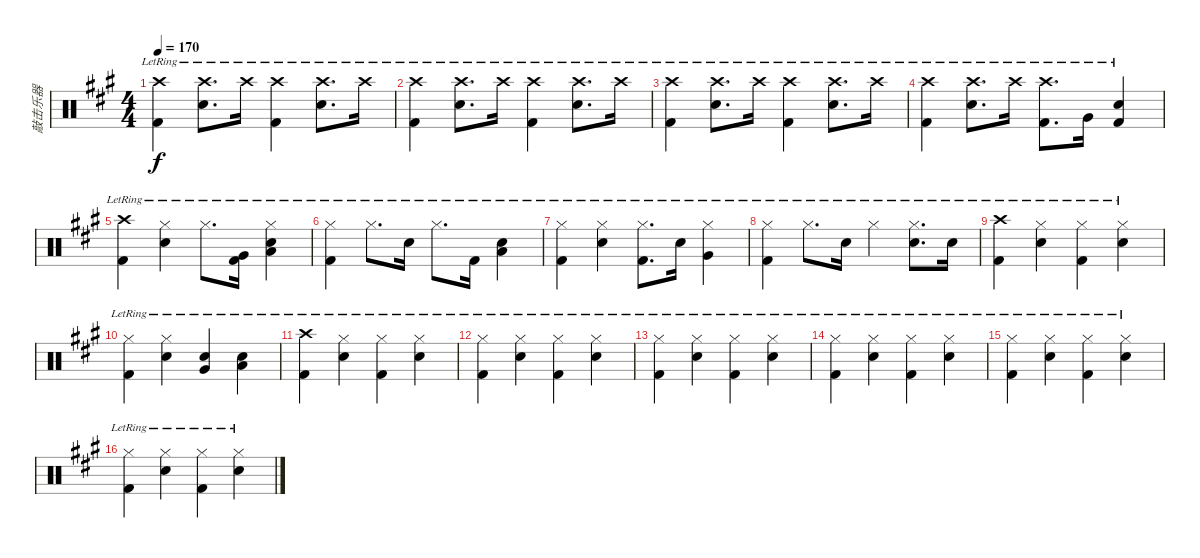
\track ("敲击乐器" "敲击乐器") {instrument percussion}
\staff {score}
\articulation defaults
\ts (4 4)
\tempo 170
\clef neutral
\ks a
("Crash high (hit)"{lr} "Kick (hit) 2"{lr}).4{dy f} ("Crash high (hit)"{lr} "Snare (hit) 2"{lr}).8{d} "Crash high (hit)"{lr}.16 ("Crash high (hit)"{lr} "Kick (hit) 2"{lr}).4 ("Crash high (hit)"{lr} "Snare (hit) 2"{lr}).8{d} "Crash high (hit)"{lr}.16 |
("Crash high (hit)"{lr} "Kick (hit) 2"{lr}).4 ("Crash high (hit)"{lr} "Snare (hit) 2"{lr}).8{d} "Crash high (hit)"{lr}.16 ("Crash high (hit)"{lr} "Kick (hit) 2"{lr}).4 ("Crash high (hit)"{lr} "Snare (hit) 2"{lr}).8{d} "Crash high (hit)"{lr}.16 |
("Crash high (hit)"{lr} "Kick (hit) 2"{lr}).4 ("Crash high (hit)"{lr} "Snare (hit) 2"{lr}).8{d} "Crash high (hit)"{lr}.16 ("Crash high (hit)"{lr} "Kick (hit) 2"{lr}).4 ("Crash high (hit)"{lr} "Snare (hit) 2"{lr}).8{d} "Crash high (hit)"{lr}.16 |
("Crash high (hit)"{lr} "Kick (hit) 2"{lr}).4 ("Crash high (hit)"{lr} "Snare (hit) 2"{lr}).8{d} "Crash high (hit)"{lr}.16 ("Crash high (hit)"{lr} "Kick (hit) 2"{lr}).8{d} "Very Low Tom (hit)"{lr}.16 ("Snare (hit) 2"{lr} "Kick (hit) 2"{lr}).4 |
("Crash high (hit)"{lr} "Kick (hit) 2"{lr}).4 ("Hi-Hat (closed)"{lr} "Snare (hit) 2"{lr}).4 "Hi-Hat (closed)"{lr}.8{d} ("Very Low Tom (hit)"{lr} "Kick (hit) 2"{lr}).16 ("Hi-Hat (closed)"{lr} "Snare (hit) 2"{lr} "Low Tom (hit)"{lr}).4 |
("Hi-Hat (closed)"{lr} "Kick (hit) 2"{lr}).4 "Hi-Hat (closed)"{lr}.8{d} "Snare (hit) 2"{lr}.16 "Hi-Hat (closed)"{lr}.8{d} "Kick (hit) 2"{lr}.16 ("Snare (hit) 2"{lr} "Low Tom (hit)"{lr}).4 |
("Hi-Hat (closed)"{lr} "Kick (hit) 2"{lr}).4 ("Hi-Hat (closed)"{lr} "Snare (hit) 2"{lr}).4 ("Hi-Hat (closed)"{lr} "Kick (hit) 2"{lr}).8{d} "Snare (hit) 2"{lr}.16 ("Hi-Hat (closed)"{lr} "Very Low Tom (hit)"{lr}).4 |
("Hi-Hat (closed)"{lr} "Kick (hit) 2"{lr}).4 "Hi-Hat (closed)"{lr}.8{d} "Snare (hit) 2"{lr}.16 "Hi-Hat (closed)"{lr}.4 ("Hi-Hat (closed)"{lr} "Snare (hit) 2"{lr}).8{d} "Snare (hit) 2"{lr}.16 |
("Crash high (hit)"{lr} "Kick (hit) 2"{lr}).4 ("Hi-Hat (closed)"{lr} "Snare (hit) 2"{lr}).4 ("Hi-Hat (closed)"{lr} "Kick (hit) 2"{lr}).4 ("Hi-Hat (closed)"{lr} "Snare (hit) 2"{lr}).4 |
("Hi-Hat (closed)"{lr} "Kick (hit) 2"{lr}).4 ("Hi-Hat (closed)"{lr} "Snare (hit) 2"{lr}).4 ("Snare (hit) 2"{lr} "Very Low Tom (hit)"{lr}).4 ("Snare (hit) 2"{lr} "Low Tom (hit)"{lr}).4 |
("Crash high (hit)"{lr} "Kick (hit) 2"{lr}).4 ("Hi-Hat (closed)"{lr} "Snare (hit) 2"{lr}).4 ("Hi-Hat (closed)"{lr} "Kick (hit) 2"{lr}).4 ("Hi-Hat (closed)"{lr} "Snare (hit) 2"{lr}).4 |
("Hi-Hat (closed)"{lr} "Kick (hit) 2"{lr}).4 ("Hi-Hat (closed)"{lr} "Snare (hit) 2"{lr}).4 ("Hi-Hat (closed)"{lr} "Kick (hit) 2"{lr}).4 ("Hi-Hat (closed)"{lr} "Snare (hit) 2"{lr}).4 |
("Hi-Hat (closed)"{lr} "Kick (hit) 2"{lr}).4 ("Hi-Hat (closed)"{lr} "Snare (hit) 2"{lr}).4 ("Hi-Hat (closed)"{lr} "Kick (hit) 2"{lr}).4 ("Hi-Hat (closed)"{lr} "Snare (hit) 2"{lr}).4 |
("Hi-Hat (closed)"{lr} "Kick (hit) 2"{lr}).4 ("Hi-Hat (closed)"{lr} "Snare (hit) 2"{lr}).4 ("Hi-Hat (closed)"{lr} "Kick (hit) 2"{lr}).4 ("Hi-Hat (closed)"{lr} "Snare (hit) 2"{lr}).4 |
("Hi-Hat (closed)"{lr} "Kick (hit) 2"{lr}).4 ("Hi-Hat (closed)"{lr} "Snare (hit) 2"{lr}).4 ("Hi-Hat (closed)"{lr} "Kick (hit) 2"{lr}).4 ("Hi-Hat (closed)"{lr} "Snare (hit) 2"{lr}).4 |
("Hi-Hat (closed)"{lr} "Kick (hit) 2"{lr}).4 ("Hi-Hat (closed)"{lr} "Snare (hit) 2"{lr}).4 ("Hi-Hat (closed)"{lr} "Kick (hit) 2"{lr}).4 ("Hi-Hat (closed)"{lr} "Snare (hit) 2"{lr}).4
